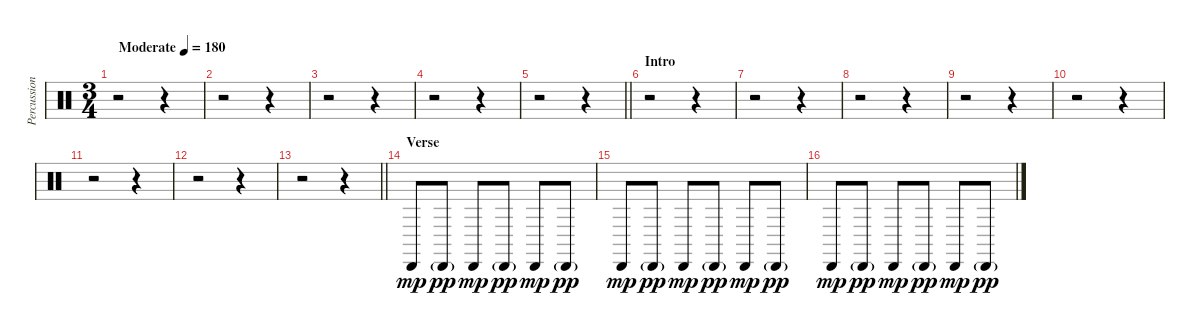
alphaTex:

\track ("Percussion" "Percussion") {instrument percussion}
\staff {score}
\articulation defaults
\ts (3 4)
\tempo (180 "Moderate")
\clef neutral
\ks c
r.2{dy mp} r.4 |
r.2 r.4 |
r.2 r.4 |
r.2 r.4 |
\barLineRight lightlight
r.2 r.4 |
\section ("" "Intro")
r.2 r.4 |
r.2 r.4 |
r.2 r.4 |
r.2 r.4 |
r.2 r.4 |
r.2 r.4 |
r.2 r.4 |
\barLineRight lightlight
r.2 r.4 |
\section ("" "Verse")
"Cabasa (hit)".8 "Cabasa (hit)"{g}.8{dy pp} "Cabasa (hit)".8{dy mp} "Cabasa (hit)"{g}.8{dy pp} "Cabasa (hit)".8{dy mp} "Cabasa (hit)"{g}.8{dy pp} |
"Cabasa (hit)".8{dy mp} "Cabasa (hit)"{g}.8{dy pp} "Cabasa (hit)".8{dy mp} "Cabasa (hit)"{g}.8{dy pp} "Cabasa (hit)".8{dy mp} "Cabasa (hit)"{g}.8{dy pp} |
"Cabasa (hit)".8{dy mp} "Cabasa (hit)"{g}.8{dy pp} "Cabasa (hit)".8{dy mp} "Cabasa (hit)"{g}.8{dy pp} "Cabasa (hit)".8{dy mp} "Cabasa (hit)"{g}.8{dy pp}
